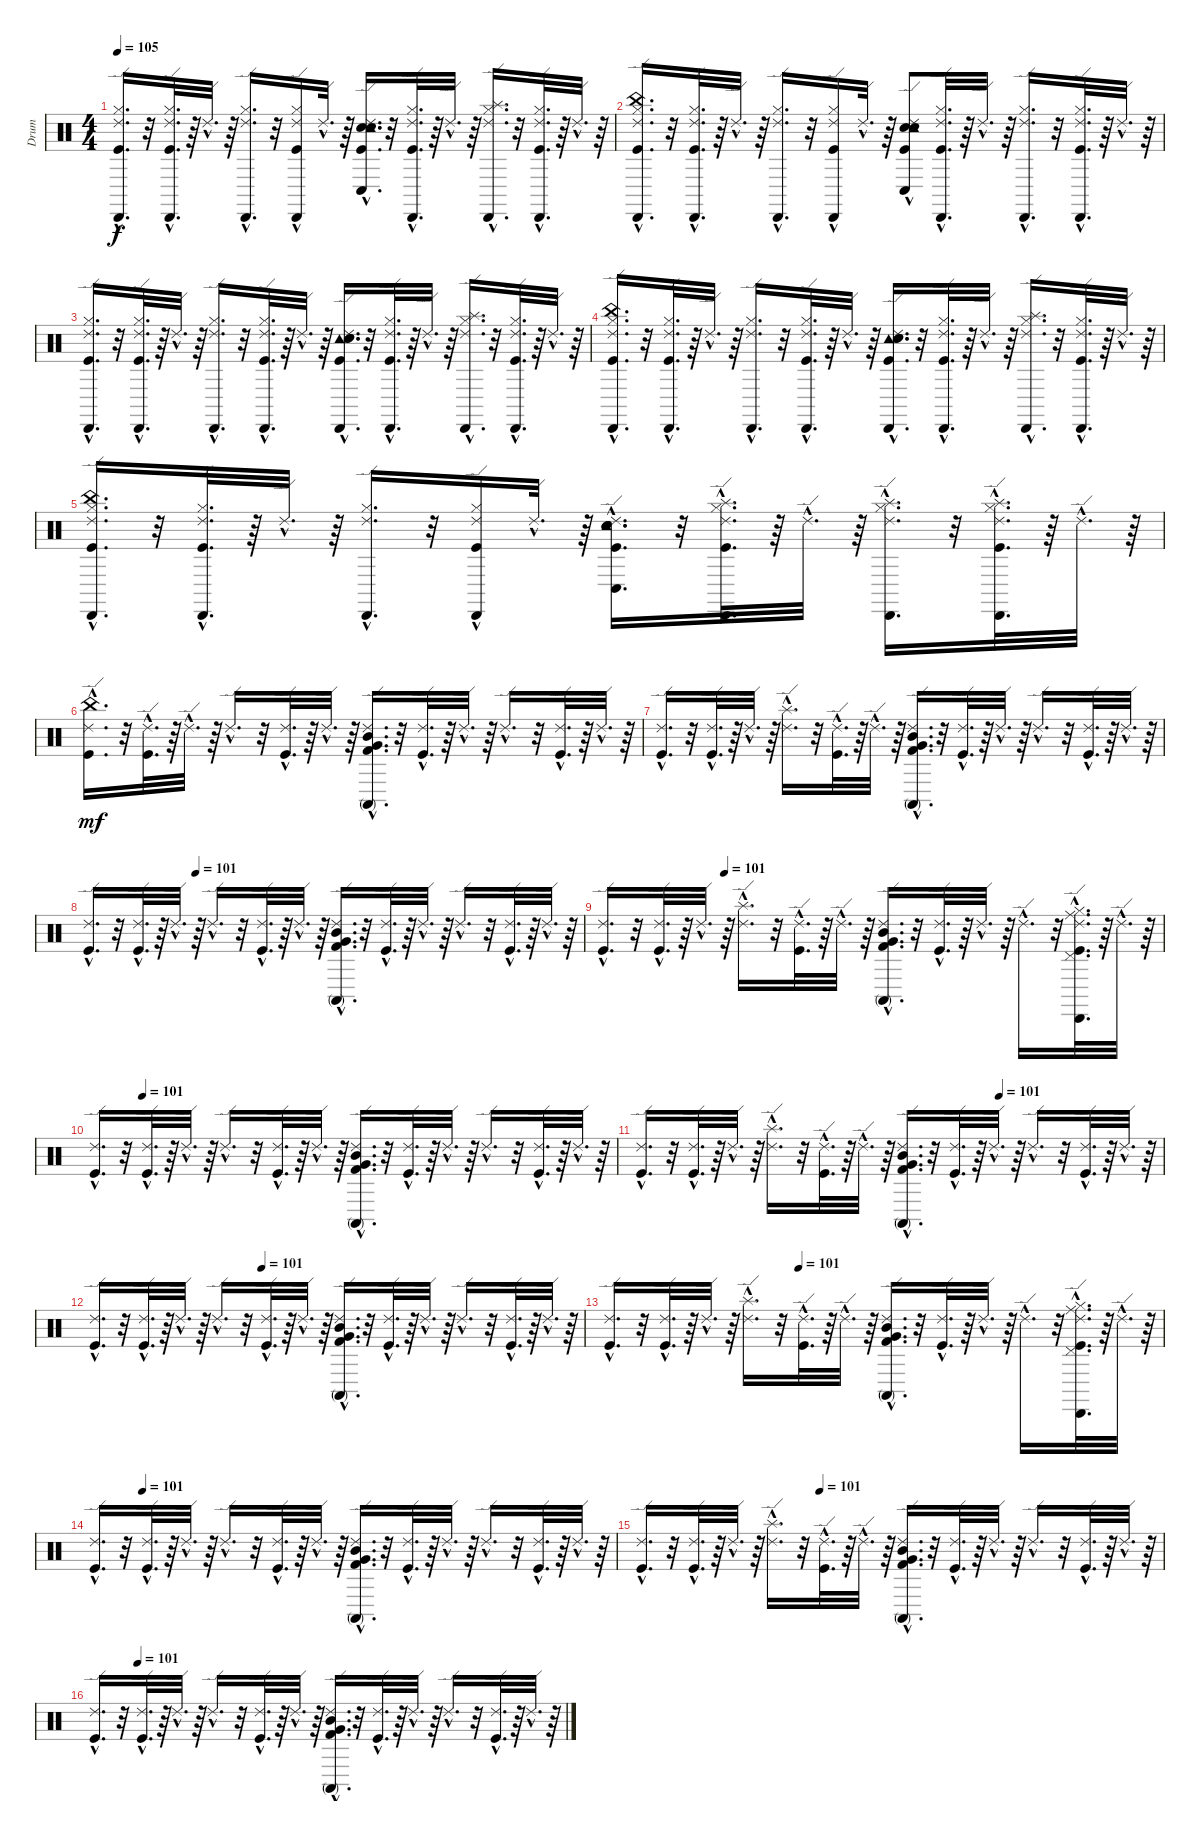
\track ("Drum" "Drum") {instrument percussion}
\staff {score}
\articulation defaults
\ts (4 4)
\tempo 105
\clef neutral
\ks c
("Hi-Hat (closed)"{hac} "Ride (edge) 2"{hac} "Kick (hit)"{hac} "Cabasa (hit)"{hac}).16{d dy f} r.32 ("Hi-Hat (closed)"{hac} "Ride (edge) 2"{hac} "Kick (hit)"{hac} "Cabasa (hit)"{hac}).32{d} r.64 "Ride (edge) 2"{hac}.32{d} r.64 ("Hi-Hat (closed)"{hac} "Ride (edge) 2"{hac} "Cabasa (hit)"{hac}).16{d} r.32 ("Hi-Hat (closed)"{hac} "Ride (edge) 2"{hac} "Kick (hit)"{hac} "Cabasa (hit)"{hac}).16 "Ride (edge) 2"{hac}.32{d} r.64 ("Conga low (hit)"{hac} "Kick (hit)"{hac} "Snare (hit) 2"{hac} "Electric Snare (hit)"{hac} "Ride (edge) 2"{hac} "Tambourine (hit)"{hac}).16{d} r.32 ("Hi-Hat (closed)"{hac} "Ride (edge) 2"{hac} "Kick (hit)"{hac} "Cabasa (hit)"{hac}).32{d} r.64 "Ride (edge) 2"{hac}.32{d} r.64 ("Splash (hit)"{hac} "Hi-Hat (closed)"{hac} "Ride (edge) 2"{hac} "Cabasa (hit)"{hac}).16{d} r.32 ("Hi-Hat (closed)"{hac} "Kick (hit)"{hac} "Ride (edge) 2"{hac} "Cabasa (hit)"{hac}).32{d} r.64 "Ride (edge) 2"{hac}.32{d} r.64 |
("Ride (edge) 2"{hac} "Kick (hit)"{hac} "China (hit)"{hac} "Cabasa (hit)"{hac} "Hi-Hat (closed)"{hac}).16{d} r.32 ("Ride (edge) 2"{hac} "Kick (hit)"{hac} "Cabasa (hit)"{hac} "Hi-Hat (closed)"{hac}).32{d} r.64 "Ride (edge) 2"{hac}.32{d} r.64 ("Ride (edge) 2"{hac} "Cabasa (hit)"{hac} "Hi-Hat (closed)"{hac}).16{d} r.32 ("Ride (edge) 2"{hac} "Kick (hit)"{hac} "Cabasa (hit)"{hac} "Hi-Hat (closed)"{hac}).16 "Ride (edge) 2"{hac}.32{d} r.64 ("Conga low (hit)" "Kick (hit)"{hac} "Snare (hit) 2"{hac} "Electric Snare (hit)"{hac} "Ride (edge) 2"{hac} "Tambourine (hit)"{hac}).8 ("Ride (edge) 2"{hac} "Kick (hit)"{hac} "Cabasa (hit)"{hac} "Hi-Hat (closed)"{hac}).32{d} r.64 "Ride (edge) 2"{hac}.32{d} r.64 ("Ride (edge) 2"{hac} "Cabasa (hit)"{hac} "Hi-Hat (closed)"{hac}).16{d} r.32 ("Kick (hit)"{hac} "Ride (edge) 2"{hac} "Cabasa (hit)"{hac} "Hi-Hat (closed)"{hac}).32{d} r.64 "Ride (edge) 2"{hac}.32{d} r.64 |
("Cabasa (hit)"{hac} "Kick (hit)"{hac} "Ride (edge) 2"{hac} "Hi-Hat (closed)"{hac}).16{d} r.32 ("Cabasa (hit)"{hac} "Kick (hit)"{hac} "Ride (edge) 2"{hac} "Hi-Hat (closed)"{hac}).32{d} r.64 "Ride (edge) 2"{hac}.32{d} r.64 ("Cabasa (hit)"{hac} "Ride (edge) 2"{hac} "Hi-Hat (closed)"{hac}).16{d} r.32 ("Cabasa (hit)"{hac} "Kick (hit)"{hac} "Ride (edge) 2"{hac} "Hi-Hat (closed)"{hac}).32{d} r.64 "Ride (edge) 2"{hac}.32{d} r.64 ("Cabasa (hit)"{hac} "Tambourine (hit)"{hac} "Ride (edge) 2"{hac} "Electric Snare (hit)"{hac} "Snare (hit) 2"{hac} "Kick (hit)"{hac}).16{d} r.32 ("Cabasa (hit)"{hac} "Kick (hit)"{hac} "Ride (edge) 2"{hac} "Hi-Hat (closed)"{hac}).32{d} r.64 "Ride (edge) 2"{hac}.32{d} r.64 ("Splash (hit)"{hac} "Cabasa (hit)"{hac} "Ride (edge) 2"{hac} "Hi-Hat (closed)"{hac}).16{d} r.32 ("Cabasa (hit)"{hac} "Ride (edge) 2"{hac} "Kick (hit)"{hac} "Hi-Hat (closed)"{hac}).32{d} r.64 "Ride (edge) 2"{hac}.32{d} r.64 |
("China (hit)"{hac} "Cabasa (hit)"{hac} "Kick (hit)"{hac} "Ride (edge) 2"{hac} "Hi-Hat (closed)"{hac}).16{d} r.32 ("Cabasa (hit)"{hac} "Kick (hit)"{hac} "Ride (edge) 2"{hac} "Hi-Hat (closed)"{hac}).32{d} r.64 "Ride (edge) 2"{hac}.32{d} r.64 ("Cabasa (hit)"{hac} "Ride (edge) 2"{hac} "Hi-Hat (closed)"{hac}).16{d} r.32 ("Cabasa (hit)"{hac} "Kick (hit)"{hac} "Ride (edge) 2"{hac} "Hi-Hat (closed)"{hac}).32{d} r.64 "Ride (edge) 2"{hac}.32{d} r.64 ("Cabasa (hit)"{hac} "Tambourine (hit)"{hac} "Ride (edge) 2"{hac} "Electric Snare (hit)"{hac} "Snare (hit) 2"{hac} "Kick (hit)"{hac}).16{d} r.32 ("Cabasa (hit)"{hac} "Kick (hit)"{hac} "Ride (edge) 2"{hac} "Hi-Hat (closed)"{hac}).32{d} r.64 "Ride (edge) 2"{hac}.32{d} r.64 ("Splash (hit)"{hac} "Cabasa (hit)"{hac} "Ride (edge) 2"{hac} "Hi-Hat (closed)"{hac}).16{d} r.32 ("Cabasa (hit)"{hac} "Ride (edge) 2"{hac} "Kick (hit)"{hac} "Hi-Hat (closed)"{hac}).32{d} r.64 "Ride (edge) 2"{hac}.32{d} r.64 |
("Hi-Hat (closed)"{hac} "Ride (edge) 2"{hac} "Kick (hit)"{hac} "China (hit)"{hac} "Cabasa (hit)"{hac}).16{d} r.32 ("Hi-Hat (closed)"{hac} "Ride (edge) 2"{hac} "Kick (hit)"{hac} "Cabasa (hit)"{hac}).32{d} r.64 "Ride (edge) 2"{hac}.32{d} r.64 ("Hi-Hat (closed)"{hac} "Ride (edge) 2"{hac} "Cabasa (hit)"{hac}).16{d} r.32 ("Hi-Hat (closed)"{hac} "Ride (edge) 2"{hac} "Kick (hit)"{hac} "Cabasa (hit)"{hac}).16 "Ride (edge) 2"{hac}.32{d} r.64 ("Conga low (hit)"{hac} "Kick (hit)"{hac} "Snare (hit) 2"{hac} "Electric Snare (hit)"{hac} "Ride (edge) 2"{hac} "Tambourine (hit)"{hac}).16{d} r.32 ("Splash (hit)"{hac} "Hi-Hat (closed)"{hac} "Ride (edge) 2"{hac} "Kick (hit)"{hac} "Cabasa (hit)"{hac}).32{d} r.64 "Ride (edge) 2"{hac}.32{d} r.64 ("Splash (hit)"{hac} "Hi-Hat (closed)"{hac} "Ride (edge) 2"{hac} "Cabasa (hit)"{hac}).16{d} r.32 ("Splash (hit)"{hac} "Hi-Hat (closed)"{hac} "Kick (hit)"{hac} "Ride (edge) 2"{hac} "Cabasa (hit)"{hac}).32{d} r.64 "Ride (edge) 2"{hac}.32{d} r.64 |
("China (hit)"{hac} "Ride (edge) 2"{hac} "Kick (hit)"{hac}).16{d dy mf} r.32 ("Ride (edge) 2"{hac} "Kick (hit)"{hac}).32{d} r.64 "Ride (edge) 2"{hac}.32{d} r.64 "Ride (edge) 2"{hac}.16{d} r.32 ("Kick (hit)"{hac} "Ride (edge) 2"{hac}).32{d} r.64 "Ride (edge) 2"{hac}.32{d} r.64 ("Ride (edge) 2"{hac} "Kick (hit) 2"{hac} "Very Low Tom (hit)"{hac} "Mid Tom (hit)"{hac} "Conga high (mute)"{hac}).16{d} r.32 ("Ride (edge) 2"{hac} "Kick (hit)"{hac}).32{d} r.64 "Ride (edge) 2"{hac}.32{d} r.64 "Ride (edge) 2"{hac}.16{d} r.32 ("Ride (edge) 2"{hac} "Kick (hit)"{hac}).32{d} r.64 "Ride (edge) 2"{hac}.32{d} r.64 |
("Kick (hit)"{hac} "Ride (edge) 2"{hac}).16{d} r.32 ("Kick (hit)"{hac} "Ride (edge) 2"{hac}).32{d} r.64 "Ride (edge) 2"{hac}.32{d} r.64 ("Ride (edge) 2"{hac} "Splash (hit)"{hac}).16{d} r.32 ("Ride (edge) 2"{hac} "Kick (hit)"{hac}).32{d} r.64 "Ride (edge) 2"{hac}.32{d} r.64 ("Conga high (mute)"{hac} "Mid Tom (hit)"{hac} "Very Low Tom (hit)"{hac} "Kick (hit) 2"{hac} "Ride (edge) 2"{hac}).16{d} r.32 ("Kick (hit)"{hac} "Ride (edge) 2"{hac}).32{d} r.64 "Ride (edge) 2"{hac}.32{d} r.64 "Ride (edge) 2"{hac}.16{d} r.32 ("Kick (hit)"{hac} "Ride (edge) 2"{hac}).32{d} r.64 "Ride (edge) 2"{hac}.32{d} r.64 |
\tempo (101 0.21875)
("Kick (hit)"{hac} "Ride (edge) 2"{hac}).16{d} r.32 ("Kick (hit)"{hac} "Ride (edge) 2"{hac}).32{d} r.64 "Ride (edge) 2"{hac}.32{d} r.64 "Ride (edge) 2"{hac}.16{d} r.32 ("Ride (edge) 2"{hac} "Kick (hit)"{hac}).32{d} r.64 "Ride (edge) 2"{hac}.32{d} r.64 ("Conga high (mute)"{hac} "Mid Tom (hit)"{hac} "Very Low Tom (hit)"{hac} "Kick (hit) 2"{hac} "Ride (edge) 2"{hac}).16{d} r.32 ("Kick (hit)"{hac} "Ride (edge) 2"{hac}).32{d} r.64 "Ride (edge) 2"{hac}.32{d} r.64 "Ride (edge) 2"{hac}.16{d} r.32 ("Kick (hit)"{hac} "Ride (edge) 2"{hac}).32{d} r.64 "Ride (edge) 2"{hac}.32{d} r.64 |
\tempo (101 0.21875)
("Kick (hit)"{hac} "Ride (edge) 2"{hac}).16{d} r.32 ("Kick (hit)"{hac} "Ride (edge) 2"{hac}).32{d} r.64 "Ride (edge) 2"{hac}.32{d} r.64 ("Splash (hit)"{hac} "Ride (edge) 2"{hac}).16{d} r.32 ("Ride (edge) 2"{hac} "Kick (hit)"{hac}).32{d} r.64 "Ride (edge) 2"{hac}.32{d} r.64 ("Conga high (mute)"{hac} "Mid Tom (hit)"{hac} "Very Low Tom (hit)"{hac} "Kick (hit) 2"{hac} "Ride (edge) 2"{hac}).16{d} r.32 ("Kick (hit)"{hac} "Ride (edge) 2"{hac}).32{d} r.64 "Ride (edge) 2"{hac}.32{d} r.64 "Ride (edge) 2"{hac}.16{d} r.32 ("Kick (hit)"{hac} "Ride (edge) 2"{hac} "Ride (middle)"{hac} "Pedal Hi-Hat (hit)"{hac} "Hi-Hat (closed)"{hac} "Cabasa (hit)"{hac}).32{d} r.64 "Ride (edge) 2"{hac}.32{d} r.64 |
\tempo (101 0.09375)
("Ride (edge) 2"{hac} "Kick (hit)"{hac}).16{d} r.32 ("Ride (edge) 2"{hac} "Kick (hit)"{hac}).32{d} r.64 "Ride (edge) 2"{hac}.32{d} r.64 "Ride (edge) 2"{hac}.16{d} r.32 ("Kick (hit)"{hac} "Ride (edge) 2"{hac}).32{d} r.64 "Ride (edge) 2"{hac}.32{d} r.64 ("Ride (edge) 2"{hac} "Kick (hit) 2"{hac} "Very Low Tom (hit)"{hac} "Mid Tom (hit)"{hac} "Conga high (mute)"{hac}).16{d} r.32 ("Ride (edge) 2"{hac} "Kick (hit)"{hac}).32{d} r.64 "Ride (edge) 2"{hac}.32{d} r.64 "Ride (edge) 2"{hac}.16{d} r.32 ("Ride (edge) 2"{hac} "Kick (hit)"{hac}).32{d} r.64 "Ride (edge) 2"{hac}.32{d} r.64 |
\tempo (101 0.6875)
("Kick (hit)"{hac} "Ride (edge) 2"{hac}).16{d} r.32 ("Kick (hit)"{hac} "Ride (edge) 2"{hac}).32{d} r.64 "Ride (edge) 2"{hac}.32{d} r.64 ("Ride (edge) 2"{hac} "Splash (hit)"{hac}).16{d} r.32 ("Ride (edge) 2"{hac} "Kick (hit)"{hac}).32{d} r.64 "Ride (edge) 2"{hac}.32{d} r.64 ("Conga high (mute)"{hac} "Mid Tom (hit)"{hac} "Very Low Tom (hit)"{hac} "Kick (hit) 2"{hac} "Ride (edge) 2"{hac}).16{d} r.32 ("Kick (hit)"{hac} "Ride (edge) 2"{hac}).32{d} r.64 "Ride (edge) 2"{hac}.32{d} r.64 "Ride (edge) 2"{hac}.16{d} r.32 ("Kick (hit)"{hac} "Ride (edge) 2"{hac}).32{d} r.64 "Ride (edge) 2"{hac}.32{d} r.64 |
\tempo (101 0.34375)
("Kick (hit)"{hac} "Ride (edge) 2"{hac}).16{d} r.32 ("Kick (hit)"{hac} "Ride (edge) 2"{hac}).32{d} r.64 "Ride (edge) 2"{hac}.32{d} r.64 "Ride (edge) 2"{hac}.16{d} r.32 ("Ride (edge) 2"{hac} "Kick (hit)"{hac}).32{d} r.64 "Ride (edge) 2"{hac}.32{d} r.64 ("Conga high (mute)"{hac} "Mid Tom (hit)"{hac} "Very Low Tom (hit)"{hac} "Kick (hit) 2"{hac} "Ride (edge) 2"{hac}).16{d} r.32 ("Kick (hit)"{hac} "Ride (edge) 2"{hac}).32{d} r.64 "Ride (edge) 2"{hac}.32{d} r.64 "Ride (edge) 2"{hac}.16{d} r.32 ("Kick (hit)"{hac} "Ride (edge) 2"{hac}).32{d} r.64 "Ride (edge) 2"{hac}.32{d} r.64 |
\tempo (101 0.34375)
("Kick (hit)"{hac} "Ride (edge) 2"{hac}).16{d} r.32 ("Kick (hit)"{hac} "Ride (edge) 2"{hac}).32{d} r.64 "Ride (edge) 2"{hac}.32{d} r.64 ("Splash (hit)"{hac} "Ride (edge) 2"{hac}).16{d} r.32 ("Ride (edge) 2"{hac} "Kick (hit)"{hac}).32{d} r.64 "Ride (edge) 2"{hac}.32{d} r.64 ("Conga high (mute)"{hac} "Mid Tom (hit)"{hac} "Very Low Tom (hit)"{hac} "Kick (hit) 2"{hac} "Ride (edge) 2"{hac}).16{d} r.32 ("Kick (hit)"{hac} "Ride (edge) 2"{hac}).32{d} r.64 "Ride (edge) 2"{hac}.32{d} r.64 "Ride (edge) 2"{hac}.16{d} r.32 ("Kick (hit)"{hac} "Ride (edge) 2"{hac} "Ride (middle)"{hac} "Pedal Hi-Hat (hit)"{hac} "Hi-Hat (closed)"{hac} "Cabasa (hit)"{hac}).32{d} r.64 "Ride (edge) 2"{hac}.32{d} r.64 |
\tempo (101 0.09375)
("Ride (edge) 2"{hac} "Kick (hit)"{hac}).16{d} r.32 ("Ride (edge) 2"{hac} "Kick (hit)"{hac}).32{d} r.64 "Ride (edge) 2"{hac}.32{d} r.64 "Ride (edge) 2"{hac}.16{d} r.32 ("Kick (hit)"{hac} "Ride (edge) 2"{hac}).32{d} r.64 "Ride (edge) 2"{hac}.32{d} r.64 ("Ride (edge) 2"{hac} "Kick (hit) 2"{hac} "Very Low Tom (hit)"{hac} "Mid Tom (hit)"{hac} "Conga high (mute)"{hac}).16{d} r.32 ("Ride (edge) 2"{hac} "Kick (hit)"{hac}).32{d} r.64 "Ride (edge) 2"{hac}.32{d} r.64 "Ride (edge) 2"{hac}.16{d} r.32 ("Ride (edge) 2"{hac} "Kick (hit)"{hac}).32{d} r.64 "Ride (edge) 2"{hac}.32{d} r.64 |
\tempo (101 0.34375)
("Kick (hit)"{hac} "Ride (edge) 2"{hac}).16{d} r.32 ("Kick (hit)"{hac} "Ride (edge) 2"{hac}).32{d} r.64 "Ride (edge) 2"{hac}.32{d} r.64 ("Ride (edge) 2"{hac} "Splash (hit)"{hac}).16{d} r.32 ("Ride (edge) 2"{hac} "Kick (hit)"{hac}).32{d} r.64 "Ride (edge) 2"{hac}.32{d} r.64 ("Conga high (mute)"{hac} "Mid Tom (hit)"{hac} "Very Low Tom (hit)"{hac} "Kick (hit) 2"{hac} "Ride (edge) 2"{hac}).16{d} r.32 ("Kick (hit)"{hac} "Ride (edge) 2"{hac}).32{d} r.64 "Ride (edge) 2"{hac}.32{d} r.64 "Ride (edge) 2"{hac}.16{d} r.32 ("Kick (hit)"{hac} "Ride (edge) 2"{hac}).32{d} r.64 "Ride (edge) 2"{hac}.32{d} r.64 |
\tempo (101 0.09375)
("Kick (hit)"{hac} "Ride (edge) 2"{hac}).16{d} r.32 ("Kick (hit)"{hac} "Ride (edge) 2"{hac}).32{d} r.64 "Ride (edge) 2"{hac}.32{d} r.64 "Ride (edge) 2"{hac}.16{d} r.32 ("Ride (edge) 2"{hac} "Kick (hit)"{hac}).32{d} r.64 "Ride (edge) 2"{hac}.32{d} r.64 ("Conga high (mute)"{hac} "Mid Tom (hit)"{hac} "Very Low Tom (hit)"{hac} "Kick (hit) 2"{hac} "Ride (edge) 2"{hac}).16{d} r.32 ("Kick (hit)"{hac} "Ride (edge) 2"{hac}).32{d} r.64 "Ride (edge) 2"{hac}.32{d} r.64 "Ride (edge) 2"{hac}.16{d} r.32 ("Kick (hit)"{hac} "Ride (edge) 2"{hac}).32{d} r.64 "Ride (edge) 2"{hac}.32{d} r.64
